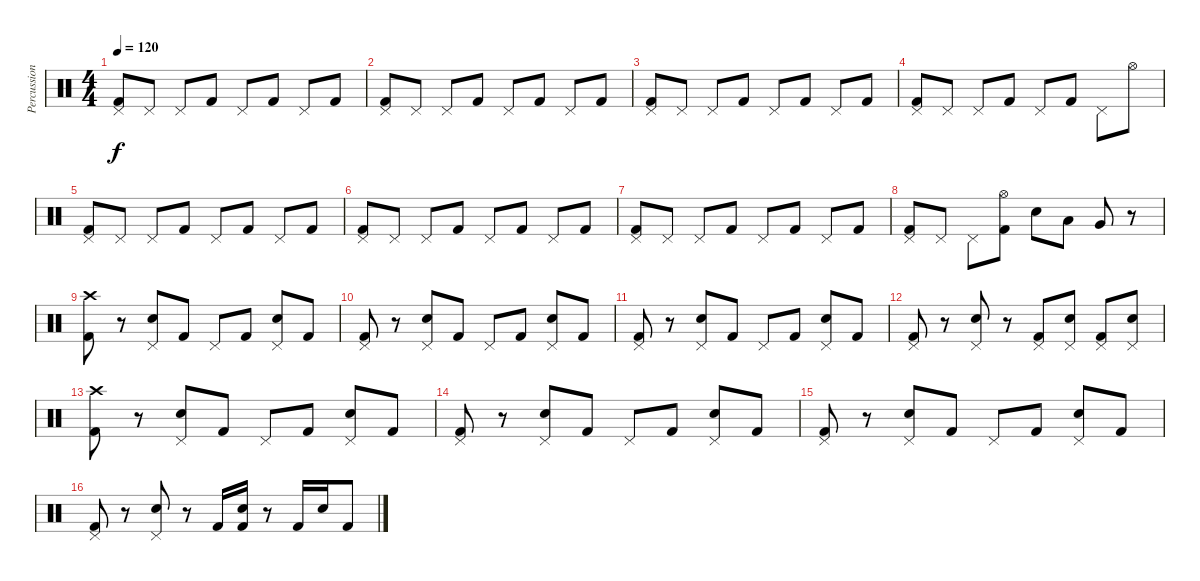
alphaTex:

\track ("Percussion" "Percussion") {instrument percussion}
\staff {score}
\articulation defaults
\ts (4 4)
\tempo 120
\clef neutral
\ks c
("Pedal Hi-Hat (hit)" "Kick (hit) 2").8{dy f} "Pedal Hi-Hat (hit)".8 "Pedal Hi-Hat (hit)".8 "Kick (hit) 2".8 "Pedal Hi-Hat (hit)".8 "Kick (hit) 2".8 "Pedal Hi-Hat (hit)".8 "Kick (hit) 2".8 |
("Pedal Hi-Hat (hit)" "Kick (hit) 2").8 "Pedal Hi-Hat (hit)".8 "Pedal Hi-Hat (hit)".8 "Kick (hit) 2".8 "Pedal Hi-Hat (hit)".8 "Kick (hit) 2".8 "Pedal Hi-Hat (hit)".8 "Kick (hit) 2".8 |
("Pedal Hi-Hat (hit)" "Kick (hit) 2").8 "Pedal Hi-Hat (hit)".8 "Pedal Hi-Hat (hit)".8 "Kick (hit) 2".8 "Pedal Hi-Hat (hit)".8 "Kick (hit) 2".8 "Pedal Hi-Hat (hit)".8 "Kick (hit) 2".8 |
("Pedal Hi-Hat (hit)" "Kick (hit) 2").8 "Pedal Hi-Hat (hit)".8 "Pedal Hi-Hat (hit)".8 "Kick (hit) 2".8 "Pedal Hi-Hat (hit)".8 "Kick (hit) 2".8 "Pedal Hi-Hat (hit)".8 "Hi-Hat (open)".8 |
("Pedal Hi-Hat (hit)" "Kick (hit) 2").8 "Pedal Hi-Hat (hit)".8 "Pedal Hi-Hat (hit)".8 "Kick (hit) 2".8 "Pedal Hi-Hat (hit)".8 "Kick (hit) 2".8 "Pedal Hi-Hat (hit)".8 "Kick (hit) 2".8 |
("Pedal Hi-Hat (hit)" "Kick (hit) 2").8 "Pedal Hi-Hat (hit)".8 "Pedal Hi-Hat (hit)".8 "Kick (hit) 2".8 "Pedal Hi-Hat (hit)".8 "Kick (hit) 2".8 "Pedal Hi-Hat (hit)".8 "Kick (hit) 2".8 |
("Pedal Hi-Hat (hit)" "Kick (hit) 2").8 "Pedal Hi-Hat (hit)".8 "Pedal Hi-Hat (hit)".8 "Kick (hit) 2".8 "Pedal Hi-Hat (hit)".8 "Kick (hit) 2".8 "Pedal Hi-Hat (hit)".8 "Kick (hit) 2".8 |
("Pedal Hi-Hat (hit)" "Kick (hit) 2").8 "Pedal Hi-Hat (hit)".8 "Pedal Hi-Hat (hit)".8 ("Hi-Hat (open)" "Kick (hit) 2").8 "Electric Snare (hit)".8 "Low Tom (hit)".8 "Very Low Tom (hit)".8 r.8 |
("Crash high (hit)" "Kick (hit) 2").8 r.8 ("Pedal Hi-Hat (hit)" "Electric Snare (hit)").8 "Kick (hit) 2".8 "Pedal Hi-Hat (hit)".8 "Kick (hit) 2".8 ("Pedal Hi-Hat (hit)" "Electric Snare (hit)").8 "Kick (hit) 2".8 |
("Pedal Hi-Hat (hit)" "Kick (hit) 2").8 r.8 ("Pedal Hi-Hat (hit)" "Electric Snare (hit)").8 "Kick (hit) 2".8 "Pedal Hi-Hat (hit)".8 "Kick (hit) 2".8 ("Pedal Hi-Hat (hit)" "Electric Snare (hit)").8 "Kick (hit) 2".8 |
("Pedal Hi-Hat (hit)" "Kick (hit) 2").8 r.8 ("Pedal Hi-Hat (hit)" "Electric Snare (hit)").8 "Kick (hit) 2".8 "Pedal Hi-Hat (hit)".8 "Kick (hit) 2".8 ("Pedal Hi-Hat (hit)" "Electric Snare (hit)").8 "Kick (hit) 2".8 |
("Pedal Hi-Hat (hit)" "Kick (hit) 2").8 r.8 ("Pedal Hi-Hat (hit)" "Electric Snare (hit)").8 r.8 ("Pedal Hi-Hat (hit)" "Kick (hit) 2").8 ("Pedal Hi-Hat (hit)" "Electric Snare (hit)").8 ("Pedal Hi-Hat (hit)" "Kick (hit) 2").8 ("Pedal Hi-Hat (hit)" "Electric Snare (hit)").8 |
("Crash high (hit)" "Kick (hit) 2").8 r.8 ("Pedal Hi-Hat (hit)" "Electric Snare (hit)").8 "Kick (hit) 2".8 "Pedal Hi-Hat (hit)".8 "Kick (hit) 2".8 ("Pedal Hi-Hat (hit)" "Electric Snare (hit)").8 "Kick (hit) 2".8 |
("Pedal Hi-Hat (hit)" "Kick (hit) 2").8 r.8 ("Pedal Hi-Hat (hit)" "Electric Snare (hit)").8 "Kick (hit) 2".8 "Pedal Hi-Hat (hit)".8 "Kick (hit) 2".8 ("Pedal Hi-Hat (hit)" "Electric Snare (hit)").8 "Kick (hit) 2".8 |
("Pedal Hi-Hat (hit)" "Kick (hit) 2").8 r.8 ("Pedal Hi-Hat (hit)" "Electric Snare (hit)").8 "Kick (hit) 2".8 "Pedal Hi-Hat (hit)".8 "Kick (hit) 2".8 ("Pedal Hi-Hat (hit)" "Electric Snare (hit)").8 "Kick (hit) 2".8 |
("Pedal Hi-Hat (hit)" "Kick (hit) 2").8 r.8 ("Pedal Hi-Hat (hit)" "Electric Snare (hit)").8 r.8 "Kick (hit) 2".16 ("Electric Snare (hit)" "Kick (hit) 2").16 r.8 "Kick (hit) 2".16 "Electric Snare (hit)".16 "Kick (hit) 2".8
